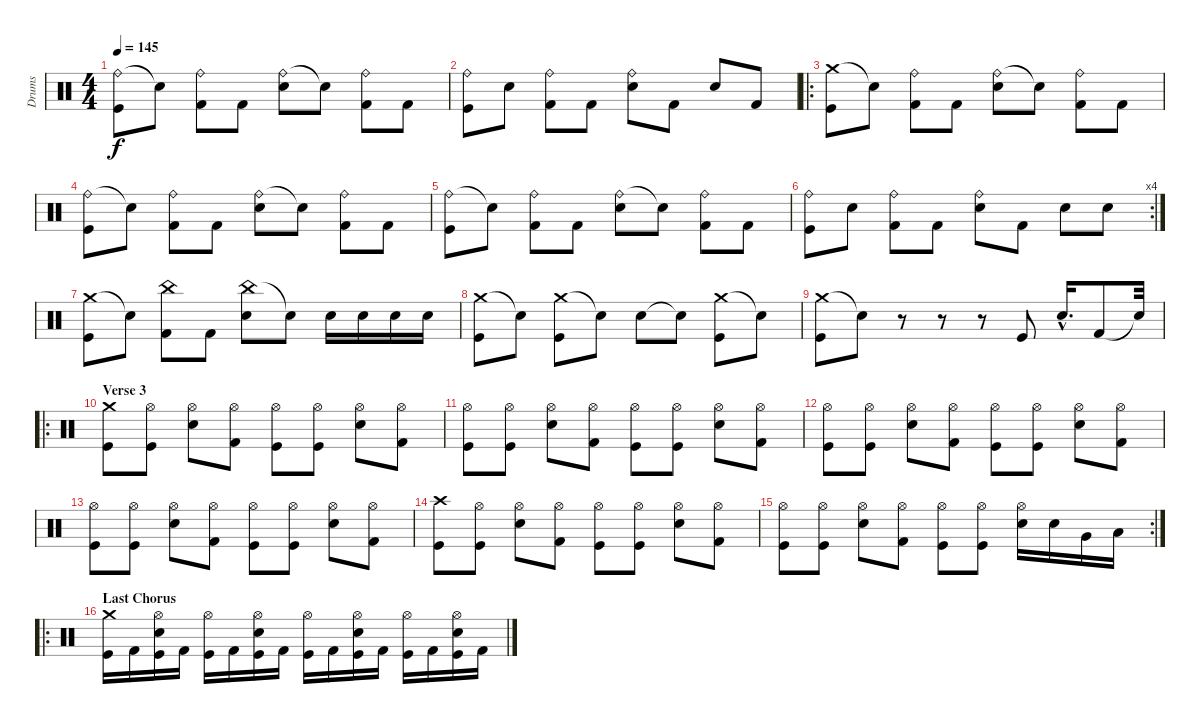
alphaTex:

\track ("Drums" "Drums") {instrument percussion}
\staff {score}
\articulation defaults
\ts (4 4)
\tempo 145
\clef neutral
\ks c
("Ride (bell)" "Kick (hit)").8{dy f} "Snare (hit)"{t}.8 ("Ride (bell)" "Kick (hit) 2").8 "Kick (hit) 2".8 ("Ride (bell)" "Electric Snare (hit)").8 "Snare (hit)"{t}.8 ("Ride (bell)" "Kick (hit) 2").8 "Kick (hit) 2".8 |
("Ride (bell)" "Kick (hit)").8 "Electric Snare (hit)".8 ("Ride (bell)" "Kick (hit) 2").8 "Kick (hit) 2".8 ("Ride (bell)" "Electric Snare (hit)").8 "Kick (hit) 2".8 "Electric Snare (hit)".8 "Kick (hit) 2".8 |
\ro
("Crash medium (hit)" "Kick (hit)").8 "Snare (hit)"{t}.8 ("Ride (bell)" "Kick (hit) 2").8 "Kick (hit) 2".8 ("Ride (bell)" "Electric Snare (hit)").8 "Snare (hit)"{t}.8 ("Ride (bell)" "Kick (hit) 2").8 "Kick (hit) 2".8 |
("Ride (bell)" "Kick (hit)").8 "Snare (hit)"{t}.8 ("Ride (bell)" "Kick (hit) 2").8 "Kick (hit) 2".8 ("Ride (bell)" "Electric Snare (hit)").8 "Snare (hit)"{t}.8 ("Ride (bell)" "Kick (hit) 2").8 "Kick (hit) 2".8 |
("Ride (bell)" "Kick (hit)").8 "Snare (hit)"{t}.8 ("Ride (bell)" "Kick (hit) 2").8 "Kick (hit) 2".8 ("Ride (bell)" "Electric Snare (hit)").8 "Snare (hit)"{t}.8 ("Ride (bell)" "Kick (hit) 2").8 "Kick (hit) 2".8 |
\rc 4
("Ride (bell)" "Kick (hit)").8 "Electric Snare (hit)".8 ("Ride (bell)" "Kick (hit) 2").8 "Kick (hit) 2".8 ("Ride (bell)" "Electric Snare (hit)").8 "Kick (hit) 2".8 "Electric Snare (hit)".8 "Electric Snare (hit)".8 |
("Crash medium (hit)" "Kick (hit)").8 "Snare (hit)"{t}.8 ("China (hit)" "Kick (hit) 2").8 "Kick (hit) 2".8 ("China (hit)" "Electric Snare (hit)").8 "Snare (hit)"{t}.8 "Electric Snare (hit)".16 "Electric Snare (hit)".16 "Electric Snare (hit)".16 "Electric Snare (hit)".16 |
("Crash medium (hit)" "Kick (hit)").8 "Snare (hit)"{t}.8 ("Crash medium (hit)" "Kick (hit)").8 "Snare (hit)"{t}.8 "Electric Snare (hit)".8 "Snare (hit)"{t}.8 ("Crash medium (hit)" "Kick (hit)").8 "Snare (hit)"{t}.8 |
("Crash medium (hit)" "Kick (hit)").8 "Snare (hit)"{t}.8 r.8 r.8 r.8 "Kick (hit)".8 "Electric Snare (hit)"{hac}.16{d} "Kick (hit) 2".8 "Snare (hit)"{t}.32 |
\ro
\section ("" "Verse 3")
("Crash medium (hit)" "Kick (hit)").8 ("Hi-Hat (open)" "Kick (hit)").8 ("Hi-Hat (open)" "Electric Snare (hit)").8 ("Hi-Hat (open)" "Kick (hit) 2").8 ("Hi-Hat (open)" "Kick (hit)").8 ("Hi-Hat (open)" "Kick (hit)").8 ("Hi-Hat (open)" "Electric Snare (hit)").8 ("Hi-Hat (open)" "Kick (hit) 2").8 |
("Hi-Hat (open)" "Kick (hit)").8 ("Hi-Hat (open)" "Kick (hit)").8 ("Hi-Hat (open)" "Electric Snare (hit)").8 ("Hi-Hat (open)" "Kick (hit) 2").8 ("Hi-Hat (open)" "Kick (hit)").8 ("Hi-Hat (open)" "Kick (hit)").8 ("Hi-Hat (open)" "Electric Snare (hit)").8 ("Hi-Hat (open)" "Kick (hit) 2").8 |
("Hi-Hat (open)" "Kick (hit)").8 ("Hi-Hat (open)" "Kick (hit)").8 ("Hi-Hat (open)" "Electric Snare (hit)").8 ("Hi-Hat (open)" "Kick (hit) 2").8 ("Hi-Hat (open)" "Kick (hit)").8 ("Hi-Hat (open)" "Kick (hit)").8 ("Hi-Hat (open)" "Electric Snare (hit)").8 ("Hi-Hat (open)" "Kick (hit) 2").8 |
("Hi-Hat (open)" "Kick (hit)").8 ("Hi-Hat (open)" "Kick (hit)").8 ("Hi-Hat (open)" "Electric Snare (hit)").8 ("Hi-Hat (open)" "Kick (hit) 2").8 ("Hi-Hat (open)" "Kick (hit)").8 ("Hi-Hat (open)" "Kick (hit)").8 ("Hi-Hat (open)" "Electric Snare (hit)").8 ("Hi-Hat (open)" "Kick (hit) 2").8 |
("Crash high (hit)" "Kick (hit)").8 ("Hi-Hat (open)" "Kick (hit)").8 ("Hi-Hat (open)" "Electric Snare (hit)").8 ("Hi-Hat (open)" "Kick (hit) 2").8 ("Hi-Hat (open)" "Kick (hit)").8 ("Hi-Hat (open)" "Kick (hit)").8 ("Hi-Hat (open)" "Electric Snare (hit)").8 ("Hi-Hat (open)" "Kick (hit) 2").8 |
\rc 2
("Hi-Hat (open)" "Kick (hit)").8 ("Hi-Hat (open)" "Kick (hit)").8 ("Hi-Hat (open)" "Electric Snare (hit)").8 ("Hi-Hat (open)" "Kick (hit) 2").8 ("Hi-Hat (open)" "Kick (hit)").8 ("Hi-Hat (open)" "Kick (hit)").8 ("Hi-Hat (open)" "Electric Snare (hit)").16 "Electric Snare (hit)".16 "Very Low Tom (hit)".16 "Low Floor Tom (hit)".16 |
\ro
\section ("" "Last Chorus")
("Crash medium (hit)" "Kick (hit)").16 "Kick (hit) 2".16 ("Hi-Hat (open)" "Electric Snare (hit)" "Kick (hit)").16 "Kick (hit) 2".16 ("Hi-Hat (open)" "Kick (hit)").16 "Kick (hit) 2".16 ("Hi-Hat (open)" "Electric Snare (hit)" "Kick (hit)").16 "Kick (hit) 2".16 ("Hi-Hat (open)" "Kick (hit)").16 "Kick (hit) 2".16 ("Hi-Hat (open)" "Electric Snare (hit)" "Kick (hit)").16 "Kick (hit) 2".16 ("Hi-Hat (open)" "Kick (hit)").16 "Kick (hit) 2".16 ("Hi-Hat (open)" "Electric Snare (hit)" "Kick (hit)").16 "Kick (hit) 2".16
